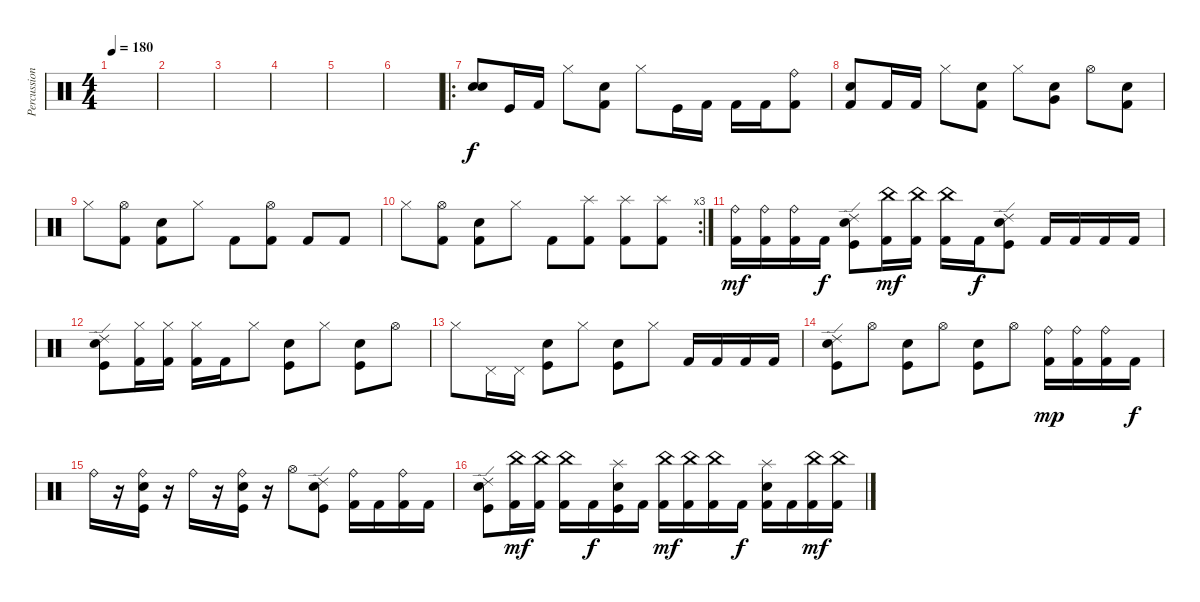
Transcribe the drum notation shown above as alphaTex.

\track ("Percussion" "Percussion") {instrument percussion}
\staff {score}
\articulation defaults
\ts (4 4)
\tempo 180
\clef neutral
\ks c
|
|
|
|
|
|
\ro
("Snare (hit) 2" "Electric Snare (hit)").8 "Kick (hit)".16 "Kick (hit) 2".16 "Hi-Hat (closed)".8 ("Snare (hit) 2" "Kick (hit) 2").8 "Hi-Hat (closed)".8 "Kick (hit)".16 "Kick (hit) 2".16 "Kick (hit) 2".16 "Kick (hit) 2".16 ("Ride (bell)" "Kick (hit) 2").8 |
("Snare (hit) 2" "Kick (hit) 2").8 "Kick (hit) 2".16 "Kick (hit) 2".16 "Hi-Hat (closed)".8 ("Snare (hit) 2" "Kick (hit) 2").8 "Hi-Hat (closed)".8 ("Snare (hit) 2" "Very Low Tom (hit)").8 "Hi-Hat (open)".8 ("Snare (hit) 2" "Kick (hit) 2").8 |
"Hi-Hat (closed)".8 ("Hi-Hat (open)" "Kick (hit) 2").8 ("Electric Snare (hit)" "Kick (hit) 2").8 "Hi-Hat (closed)".8 "Kick (hit) 2".8 ("Hi-Hat (open)" "Kick (hit) 2").8 "Kick (hit) 2".8 "Kick (hit) 2".8 |
\rc 3 "Hi-Hat (closed)".8
("Hi-Hat (open)" "Kick (hit) 2").8 ("Electric Snare (hit)" "Kick (hit) 2").8 "Hi-Hat (closed)".8 "Kick (hit) 2".8 ("Splash (hit)" "Kick (hit) 2").8 ("Splash (hit)" "Kick (hit) 2").8 ("Splash (hit)" "Kick (hit) 2").8 |
("Ride (bell)" "Kick (hit) 2").16{dy mf} ("Ride (bell)" "Kick (hit) 2").16 ("Ride (bell)" "Kick (hit) 2").16 "Kick (hit) 2".16{dy f} ("Ride (edge) 2" "Snare (hit) 2" "Kick (hit)").8 ("China (hit)" "Kick (hit) 2").16{dy mf} ("China (hit)" "Kick (hit) 2").16 ("China (hit)" "Kick (hit) 2").16 "Kick (hit) 2".16{dy f} ("Ride (edge) 2" "Snare (hit) 2" "Kick (hit)").8 "Kick (hit) 2".16 "Kick (hit) 2".16 "Kick (hit) 2".16 "Kick (hit) 2".16 |
("Ride (edge) 2" "Snare (hit) 2" "Kick (hit)").8 ("Hi-Hat (closed)" "Kick (hit) 2").16 ("Hi-Hat (closed)" "Kick (hit) 2").16 ("Hi-Hat (closed)" "Kick (hit) 2").16 "Kick (hit) 2".16 "Hi-Hat (closed)".8 ("Snare (hit) 2" "Kick (hit)").8 "Hi-Hat (closed)".8 ("Snare (hit) 2" "Kick (hit)").8 "Hi-Hat (open)".8 |
"Hi-Hat (closed)".8 "Pedal Hi-Hat (hit)".16 "Pedal Hi-Hat (hit)".16 ("Snare (hit) 2" "Kick (hit)").8 "Hi-Hat (closed)".8 ("Kick (hit)" "Snare (hit) 2").8 "Hi-Hat (closed)".8 "Kick (hit) 2".16 "Kick (hit) 2".16 "Kick (hit) 2".16 "Kick (hit) 2".16 |
("Ride (edge) 2" "Snare (hit) 2" "Kick (hit)").8 "Hi-Hat (open)".8 ("Snare (hit) 2" "Kick (hit)").8 "Hi-Hat (open)".8 ("Snare (hit) 2" "Kick (hit)").8 "Hi-Hat (open)".8 ("Ride (bell)" "Kick (hit) 2").16{dy mp} ("Ride (bell)" "Kick (hit) 2").16 ("Ride (bell)" "Kick (hit) 2").16 "Kick (hit) 2".16{dy f} |
"Ride (bell)".16 r.16 ("Ride (bell)" "Kick (hit)" "Snare (hit) 2").16 r.16 "Ride (bell)".16 r.16 ("Ride (bell)" "Kick (hit)" "Snare (hit) 2").16 r.16 "Hi-Hat (open)".8 ("Ride (edge) 2" "Kick (hit)" "Snare (hit) 2").8 ("Ride (bell)" "Kick (hit) 2").16 "Kick (hit) 2".16 ("Ride (bell)" "Kick (hit) 2").16 "Kick (hit) 2".16 |
("Snare (hit) 2" "Kick (hit)" "Ride (edge) 2").8 ("China (hit)" "Kick (hit) 2").16{dy mf} ("China (hit)" "Kick (hit) 2").16 ("China (hit)" "Kick (hit) 2").16 "Kick (hit) 2".16{dy f} ("Splash (hit)" "Snare (hit) 2" "Kick (hit)").16 "Kick (hit) 2".16 ("China (hit)" "Kick (hit) 2").16{dy mf} ("China (hit)" "Kick (hit) 2").16 ("China (hit)" "Kick (hit) 2").16 "Kick (hit) 2".16{dy f} ("Splash (hit)" "Snare (hit) 2" "Kick (hit) 2").16 "Kick (hit) 2".16 ("China (hit)" "Kick (hit) 2").16{dy mf} ("China (hit)" "Kick (hit) 2").16
